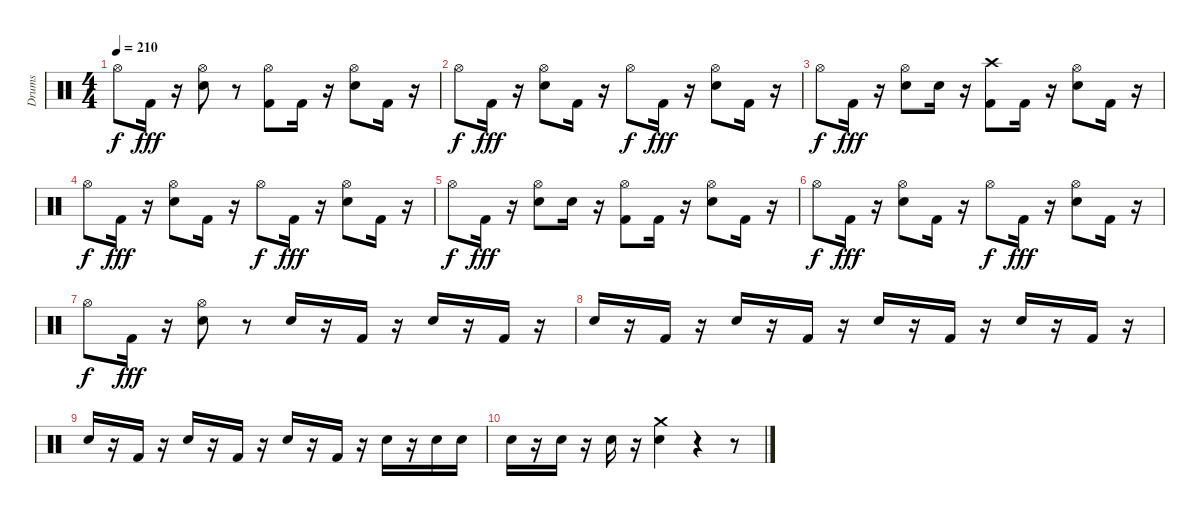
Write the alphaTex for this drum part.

\track ("Drums" "Drums") {instrument percussion}
\staff {score}
\articulation defaults
\ts (4 4)
\tempo 210
\clef neutral
\ks c "Hi-Hat (open)".8{dy f} "Kick (hit) 2".16{dy fff}
r.16 ("Electric Snare (hit)" "Hi-Hat (open)").8 r.8 ("Kick (hit) 2" "Hi-Hat (open)").8 "Kick (hit) 2".16 r.16 ("Electric Snare (hit)" "Hi-Hat (open)").8 "Kick (hit) 2".16 r.16 |
"Hi-Hat (open)".8{dy f} "Kick (hit) 2".16{dy fff} r.16 ("Electric Snare (hit)" "Hi-Hat (open)").8 "Kick (hit) 2".16 r.16 "Hi-Hat (open)".8{dy f} "Kick (hit) 2".16{dy fff} r.16 ("Electric Snare (hit)" "Hi-Hat (open)").8 "Kick (hit) 2".16 r.16 |
"Hi-Hat (open)".8{dy f} "Kick (hit) 2".16{dy fff} r.16 ("Electric Snare (hit)" "Hi-Hat (open)").8 "Electric Snare (hit)".16 r.16 ("Crash high (hit)" "Kick (hit) 2").8 "Kick (hit) 2".16 r.16 ("Hi-Hat (open)" "Electric Snare (hit)").8 "Kick (hit) 2".16 r.16 |
"Hi-Hat (open)".8{dy f} "Kick (hit) 2".16{dy fff} r.16 ("Hi-Hat (open)" "Electric Snare (hit)").8 "Kick (hit) 2".16 r.16 "Hi-Hat (open)".8{dy f} "Kick (hit) 2".16{dy fff} r.16 ("Hi-Hat (open)" "Electric Snare (hit)").8 "Kick (hit) 2".16 r.16 |
"Hi-Hat (open)".8{dy f} "Kick (hit) 2".16{dy fff} r.16 ("Hi-Hat (open)" "Electric Snare (hit)").8 "Electric Snare (hit)".16 r.16 ("Kick (hit) 2" "Hi-Hat (open)").8 "Kick (hit) 2".16 r.16 ("Electric Snare (hit)" "Hi-Hat (open)").8 "Kick (hit) 2".16 r.16 |
"Hi-Hat (open)".8{dy f} "Kick (hit) 2".16{dy fff} r.16 ("Electric Snare (hit)" "Hi-Hat (open)").8 "Kick (hit) 2".16 r.16 "Hi-Hat (open)".8{dy f} "Kick (hit) 2".16{dy fff} r.16 ("Electric Snare (hit)" "Hi-Hat (open)").8 "Kick (hit) 2".16 r.16 |
"Hi-Hat (open)".8{dy f} "Kick (hit) 2".16{dy fff} r.16 ("Electric Snare (hit)" "Hi-Hat (open)").8 r.8 "Electric Snare (hit)".16 r.16 "Kick (hit) 2".16 r.16 "Electric Snare (hit)".16 r.16 "Kick (hit) 2".16 r.16 |
"Electric Snare (hit)".16 r.16 "Kick (hit) 2".16 r.16 "Electric Snare (hit)".16 r.16 "Kick (hit) 2".16 r.16 "Electric Snare (hit)".16 r.16 "Kick (hit) 2".16 r.16 "Electric Snare (hit)".16 r.16 "Kick (hit) 2".16 r.16 |
"Electric Snare (hit)".16 r.16 "Kick (hit) 2".16 r.16 "Electric Snare (hit)".16 r.16 "Kick (hit) 2".16 r.16 "Electric Snare (hit)".16 r.16 "Kick (hit) 2".16 r.16 "Electric Snare (hit)".16 r.16 "Electric Snare (hit)".16 "Electric Snare (hit)".16 |
"Electric Snare (hit)".16 r.16 "Electric Snare (hit)".16 r.16 "Electric Snare (hit)".16 r.16 ("Electric Snare (hit)" "Crash medium (hit)").4 r.4 r.8
